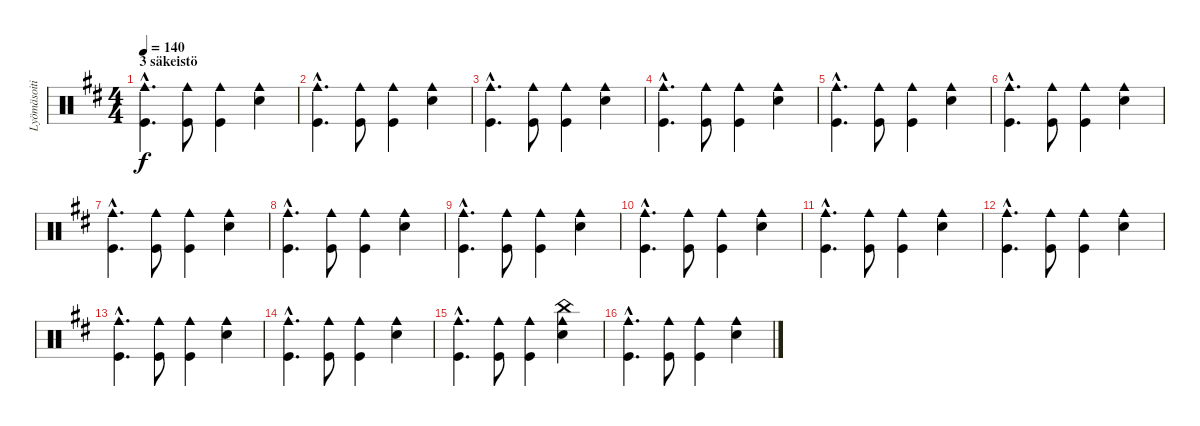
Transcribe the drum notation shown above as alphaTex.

\track ("Lyömäsoitin" "Lyömäsoiti") {instrument percussion}
\staff {score}
\articulation defaults
\ts (4 4)
\section ("" "3 säkeistö")
\tempo 140
\clef neutral
\ks d
("Cowbell medium (hit)"{hac} "Kick (hit)"{hac}).4{d dy f} ("Cowbell medium (hit)" "Kick (hit)").8 ("Cowbell medium (hit)" "Kick (hit)").4 ("Cowbell medium (hit)" "Snare (hit) 2").4 |
("Cowbell medium (hit)"{hac} "Kick (hit)"{hac}).4{d} ("Cowbell medium (hit)" "Kick (hit)").8 ("Cowbell medium (hit)" "Kick (hit)").4 ("Cowbell medium (hit)" "Snare (hit) 2").4 |
("Cowbell medium (hit)"{hac} "Kick (hit)"{hac}).4{d} ("Cowbell medium (hit)" "Kick (hit)").8 ("Cowbell medium (hit)" "Kick (hit)").4 ("Cowbell medium (hit)" "Snare (hit) 2").4 |
("Cowbell medium (hit)"{hac} "Kick (hit)"{hac}).4{d} ("Cowbell medium (hit)" "Kick (hit)").8 ("Cowbell medium (hit)" "Kick (hit)").4 ("Cowbell medium (hit)" "Snare (hit) 2").4 |
("Cowbell medium (hit)"{hac} "Kick (hit)"{hac}).4{d} ("Cowbell medium (hit)" "Kick (hit)").8 ("Cowbell medium (hit)" "Kick (hit)").4 ("Cowbell medium (hit)" "Snare (hit) 2").4 |
("Cowbell medium (hit)"{hac} "Kick (hit)"{hac}).4{d} ("Cowbell medium (hit)" "Kick (hit)").8 ("Cowbell medium (hit)" "Kick (hit)").4 ("Cowbell medium (hit)" "Snare (hit) 2").4 |
("Cowbell medium (hit)"{hac} "Kick (hit)"{hac}).4{d} ("Cowbell medium (hit)" "Kick (hit)").8 ("Cowbell medium (hit)" "Kick (hit)").4 ("Cowbell medium (hit)" "Snare (hit) 2").4 |
("Cowbell medium (hit)"{hac} "Kick (hit)"{hac}).4{d} ("Cowbell medium (hit)" "Kick (hit)").8 ("Cowbell medium (hit)" "Kick (hit)").4 ("Cowbell medium (hit)" "Snare (hit) 2").4 |
("Cowbell medium (hit)"{hac} "Kick (hit)"{hac}).4{d} ("Cowbell medium (hit)" "Kick (hit)").8 ("Cowbell medium (hit)" "Kick (hit)").4 ("Cowbell medium (hit)" "Snare (hit) 2").4 |
("Cowbell medium (hit)"{hac} "Kick (hit)"{hac}).4{d} ("Cowbell medium (hit)" "Kick (hit)").8 ("Cowbell medium (hit)" "Kick (hit)").4 ("Cowbell medium (hit)" "Snare (hit) 2").4 |
("Cowbell medium (hit)"{hac} "Kick (hit)"{hac}).4{d} ("Cowbell medium (hit)" "Kick (hit)").8 ("Cowbell medium (hit)" "Kick (hit)").4 ("Cowbell medium (hit)" "Snare (hit) 2").4 |
("Cowbell medium (hit)"{hac} "Kick (hit)"{hac}).4{d} ("Cowbell medium (hit)" "Kick (hit)").8 ("Cowbell medium (hit)" "Kick (hit)").4 ("Cowbell medium (hit)" "Snare (hit) 2").4 |
("Cowbell medium (hit)"{hac} "Kick (hit)"{hac}).4{d} ("Cowbell medium (hit)" "Kick (hit)").8 ("Cowbell medium (hit)" "Kick (hit)").4 ("Cowbell medium (hit)" "Snare (hit) 2").4 |
("Cowbell medium (hit)"{hac} "Kick (hit)"{hac}).4{d} ("Cowbell medium (hit)" "Kick (hit)").8 ("Cowbell medium (hit)" "Kick (hit)").4 ("Cowbell medium (hit)" "Snare (hit) 2").4 |
("Cowbell medium (hit)"{hac} "Kick (hit)"{hac}).4{d} ("Cowbell medium (hit)" "Kick (hit)").8 ("Cowbell medium (hit)" "Kick (hit)").4 ("Cowbell medium (hit)" "China (hit)" "Snare (hit) 2").4 |
("Cowbell medium (hit)"{hac} "Kick (hit)"{hac}).4{d} ("Cowbell medium (hit)" "Kick (hit)").8 ("Cowbell medium (hit)" "Kick (hit)").4 ("Cowbell medium (hit)" "Snare (hit) 2").4
